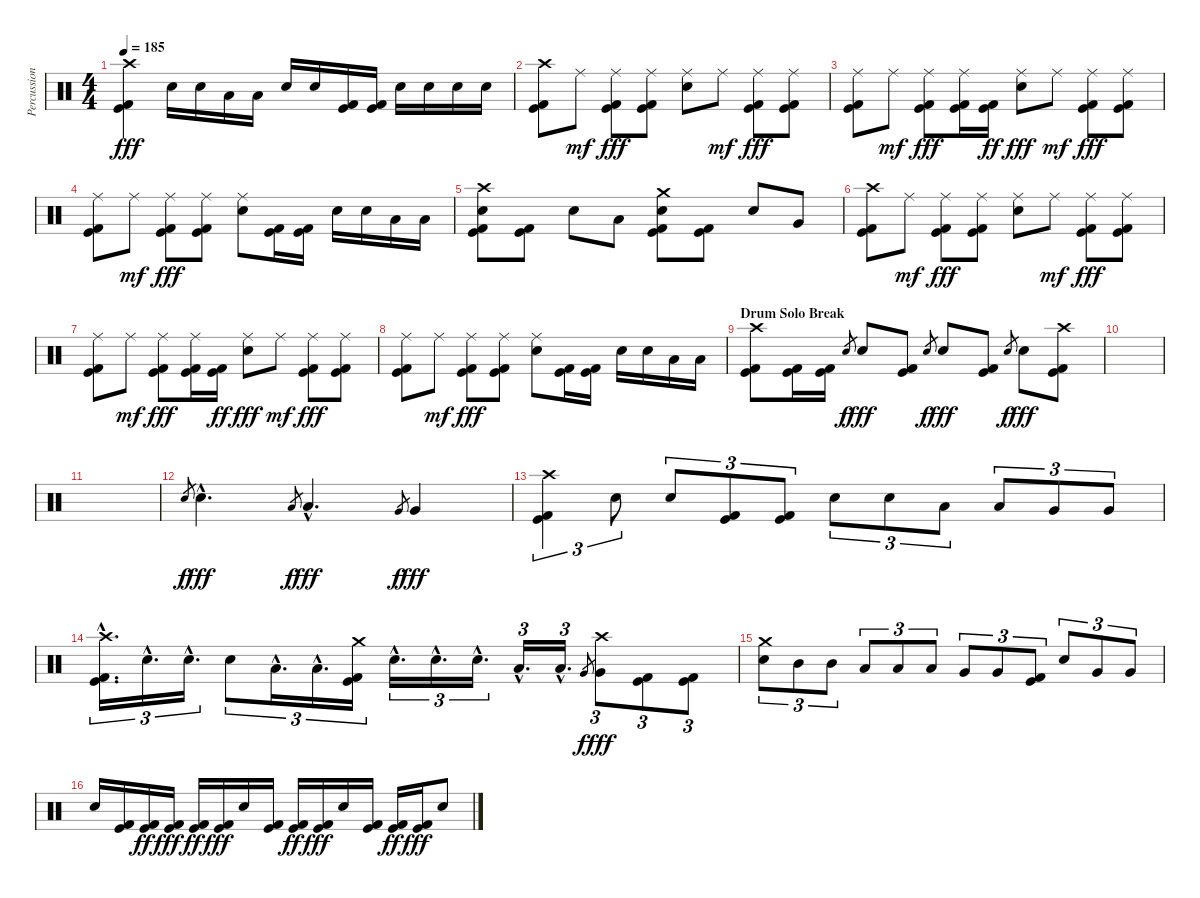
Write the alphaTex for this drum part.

\track ("Percussion" "Percussion") {instrument percussion}
\staff {score}
\articulation defaults
\ts (4 4)
\tempo 185
\clef neutral
\ks c
("Crash high (hit)" "Kick (hit)" "Kick (hit) 2").4{dy fff} "Snare (hit) 2".16 "Snare (hit) 2".16 "Low Tom (hit)".16 "Low Tom (hit)".16 "Snare (hit) 2".16 "Snare (hit) 2".16 ("Kick (hit)" "Kick (hit) 2").16 ("Kick (hit)" "Kick (hit) 2").16 "Snare (hit) 2".16 "Snare (hit) 2".16 "Snare (hit) 2".16 "Snare (hit) 2".16 |
("Crash high (hit)" "Kick (hit)" "Kick (hit) 2").8 "Ride (middle)".8{dy mf} ("Ride (middle)" "Kick (hit)" "Kick (hit) 2").8{dy fff} ("Ride (middle)" "Kick (hit)" "Kick (hit) 2").8 ("Ride (middle)" "Snare (hit) 2").8 "Ride (middle)".8{dy mf} ("Ride (middle)" "Kick (hit)" "Kick (hit) 2").8{dy fff} ("Ride (middle)" "Kick (hit)" "Kick (hit) 2").8 |
("Ride (middle)" "Kick (hit)" "Kick (hit) 2").8 "Ride (middle)".8{dy mf} ("Ride (middle)" "Kick (hit)" "Kick (hit) 2").8{dy fff} ("Ride (middle)" "Kick (hit)" "Kick (hit) 2").16 ("Kick (hit)" "Kick (hit) 2").16{dy ff} ("Ride (middle)" "Snare (hit) 2").8{dy fff} "Ride (middle)".8{dy mf} ("Ride (middle)" "Kick (hit)" "Kick (hit) 2").8{dy fff} ("Ride (middle)" "Kick (hit)" "Kick (hit) 2").8 |
("Ride (middle)" "Kick (hit)" "Kick (hit) 2").8 "Ride (middle)".8{dy mf} ("Ride (middle)" "Kick (hit)" "Kick (hit) 2").8{dy fff} ("Ride (middle)" "Kick (hit)" "Kick (hit) 2").8 ("Ride (middle)" "Snare (hit) 2").8 ("Kick (hit)" "Kick (hit) 2").16 ("Kick (hit)" "Kick (hit) 2").16 "Snare (hit) 2".16 "Snare (hit) 2".16 "Low Tom (hit)".16 "Low Tom (hit)".16 |
("Crash high (hit)" "Snare (hit) 2" "Kick (hit)" "Kick (hit) 2").8 ("Kick (hit)" "Kick (hit) 2").8 "Snare (hit) 2".8 "Low Tom (hit)".8 ("Crash medium (hit)" "Snare (hit) 2" "Kick (hit)" "Kick (hit) 2").8 ("Kick (hit)" "Kick (hit) 2").8 "Snare (hit) 2".8 "Very Low Tom (hit)".8 |
("Crash high (hit)" "Kick (hit)" "Kick (hit) 2").8 "Ride (middle)".8{dy mf} ("Ride (middle)" "Kick (hit)" "Kick (hit) 2").8{dy fff} ("Ride (middle)" "Kick (hit)" "Kick (hit) 2").8 ("Ride (middle)" "Snare (hit) 2").8 "Ride (middle)".8{dy mf} ("Ride (middle)" "Kick (hit)" "Kick (hit) 2").8{dy fff} ("Ride (middle)" "Kick (hit)" "Kick (hit) 2").8 |
("Ride (middle)" "Kick (hit)" "Kick (hit) 2").8 "Ride (middle)".8{dy mf} ("Ride (middle)" "Kick (hit)" "Kick (hit) 2").8{dy fff} ("Ride (middle)" "Kick (hit)" "Kick (hit) 2").16 ("Kick (hit)" "Kick (hit) 2").16{dy ff} ("Ride (middle)" "Snare (hit) 2").8{dy fff} "Ride (middle)".8{dy mf} ("Ride (middle)" "Kick (hit)" "Kick (hit) 2").8{dy fff} ("Ride (middle)" "Kick (hit)" "Kick (hit) 2").8 |
("Ride (middle)" "Kick (hit)" "Kick (hit) 2").8 "Ride (middle)".8{dy mf} ("Ride (middle)" "Kick (hit)" "Kick (hit) 2").8{dy fff} ("Ride (middle)" "Kick (hit)" "Kick (hit) 2").8 ("Ride (middle)" "Snare (hit) 2").8 ("Kick (hit)" "Kick (hit) 2").16 ("Kick (hit)" "Kick (hit) 2").16 "Snare (hit) 2".16 "Snare (hit) 2".16 "Low Tom (hit)".16 "Low Tom (hit)".16 |
\section ("" "Drum Solo Break")
("Crash high (hit)" "Kick (hit)" "Kick (hit) 2").8 ("Kick (hit)" "Kick (hit) 2").16 ("Kick (hit)" "Kick (hit) 2").16 "Snare (hit) 2".8{gr dy f} "Snare (hit) 2".8{dy fff} ("Kick (hit)" "Kick (hit) 2").8 "Snare (hit) 2".8{gr dy f} "Snare (hit) 2".8{dy fff} ("Kick (hit)" "Kick (hit) 2").8 "Snare (hit) 2".8{gr dy f} "Snare (hit) 2".8{dy fff} ("Crash high (hit)" "Kick (hit)" "Kick (hit) 2").8 |
|
|
"Snare (hit) 2".8{gr dy f} "Snare (hit) 2"{hac}.4{d dy fff} "Low Tom (hit)".8{gr dy f} "Low Tom (hit)"{hac}.4{d dy fff} "Very Low Tom (hit)".8{gr dy f} "Very Low Tom (hit)".4{dy fff} |
("Crash high (hit)" "Kick (hit)" "Kick (hit) 2").4{tu (3 2)} "Snare (hit) 2".8{tu (3 2)} "Snare (hit) 2".8{tu (3 2)} ("Kick (hit)" "Kick (hit) 2").8{tu (3 2)} ("Kick (hit)" "Kick (hit) 2").8{tu (3 2)} "Snare (hit) 2".8{tu (3 2)} "Snare (hit) 2".8{tu (3 2)} "Low Tom (hit)".8{tu (3 2)} "Low Tom (hit)".8{tu (3 2)} "Very Low Tom (hit)".8{tu (3 2)} "Very Low Tom (hit)".8{tu (3 2)} |
("Crash high (hit)"{hac} "Kick (hit)"{hac} "Kick (hit) 2"{hac}).16{d tu (3 2)} "Snare (hit) 2"{hac}.16{d tu (3 2)} "Snare (hit) 2"{hac}.16{d tu (3 2)} "Snare (hit) 2".8{tu (3 2)} "Low Tom (hit)"{hac}.16{d tu (3 2)} "Low Tom (hit)"{hac}.16{d tu (3 2)} ("Crash medium (hit)" "Kick (hit)" "Kick (hit) 2").16{tu (3 2)} "Snare (hit) 2"{hac}.16{d tu (3 2)} "Snare (hit) 2"{hac}.16{d tu (3 2)} "Snare (hit) 2"{hac}.16{d tu (3 2)} "Low Tom (hit)"{hac}.16{d tu (3 2)} "Low Tom (hit)"{hac}.16{d tu (3 2)} "Very Low Tom (hit)".8{gr dy f} ("Crash high (hit)" "Very Low Tom (hit)").8{tu (3 2) dy fff} ("Kick (hit)" "Kick (hit) 2").8{tu (3 2)} ("Kick (hit)" "Kick (hit) 2").8{tu (3 2)} |
("Crash medium (hit)" "Snare (hit) 2").8{tu (3 2)} "Mid Tom (hit)".8{tu (3 2)} "Mid Tom (hit)".8{tu (3 2)} "Low Tom (hit)".8{tu (3 2)} "Low Tom (hit)".8{tu (3 2)} "Low Tom (hit)".8{tu (3 2)} "Very Low Tom (hit)".8{tu (3 2)} "Very Low Tom (hit)".8{tu (3 2)} ("Kick (hit)" "Kick (hit) 2").8{tu (3 2)} "Snare (hit) 2".8{tu (3 2)} "Very Low Tom (hit)".8{tu (3 2)} "Very Low Tom (hit)".8{tu (3 2)} |
"Snare (hit) 2".16 ("Kick (hit)" "Kick (hit) 2").16 ("Kick (hit)" "Kick (hit) 2").16{dy ff} ("Kick (hit)" "Kick (hit) 2").16{dy fff} ("Kick (hit)" "Kick (hit) 2").16{dy ff} ("Kick (hit)" "Kick (hit) 2").16{dy fff} "Snare (hit) 2".16 ("Kick (hit)" "Kick (hit) 2").16 ("Kick (hit)" "Kick (hit) 2").16{dy ff} ("Kick (hit)" "Kick (hit) 2").16{dy fff} "Snare (hit) 2".16 ("Kick (hit)" "Kick (hit) 2").16 ("Kick (hit)" "Kick (hit) 2").16{dy ff} ("Kick (hit)" "Kick (hit) 2").16{dy fff} "Snare (hit) 2".8
